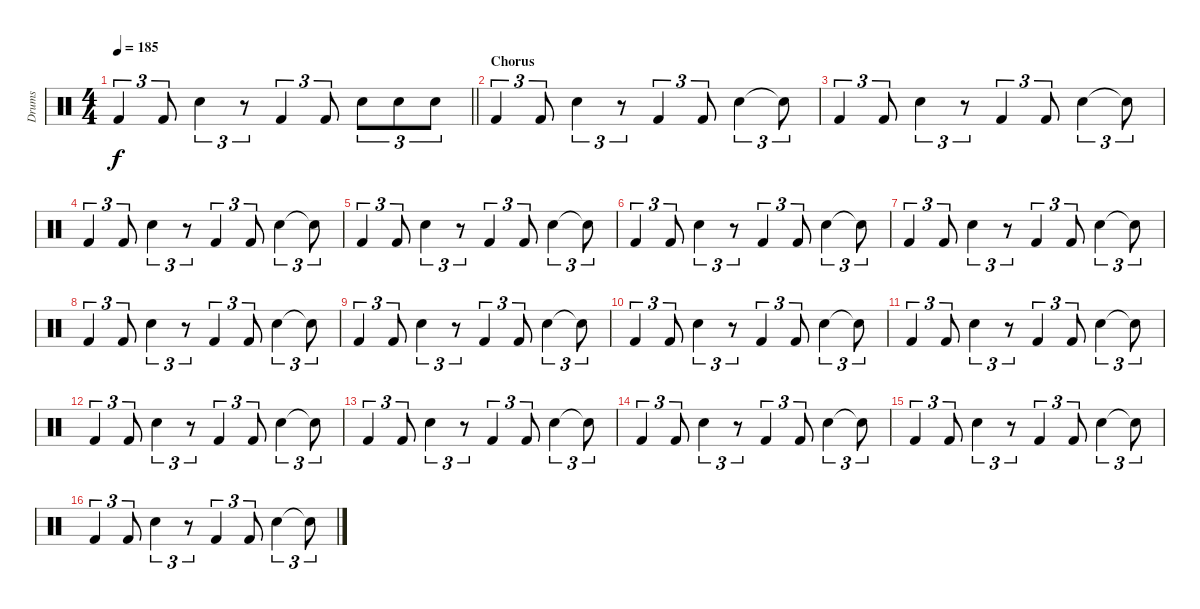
\track ("Drums" "Drums") {instrument percussion}
\staff {score}
\articulation defaults
\ts (4 4)
\tempo 185
\clef neutral
\barLineRight lightlight
\ks c "Kick (hit) 2".4{tu (3 2) dy f} "Kick (hit) 2".8{tu (3 2)} "Snare (hit) 2".4{tu (3 2)}
r.8{tu (3 2)} "Kick (hit) 2".4{tu (3 2)} "Kick (hit) 2".8{tu (3 2)} "Snare (hit) 2".8{tu (3 2)} "Snare (hit) 2".8{tu (3 2)} "Snare (hit) 2".8{tu (3 2)} |
\section ("" "Chorus")
"Kick (hit) 2".4{tu (3 2)} "Kick (hit) 2".8{tu (3 2)} "Snare (hit) 2".4{tu (3 2)} r.8{tu (3 2)} "Kick (hit) 2".4{tu (3 2)} "Kick (hit) 2".8{tu (3 2)} "Snare (hit) 2".4{tu (3 2)} "Snare (hit)"{t}.8{tu (3 2)} |
"Kick (hit) 2".4{tu (3 2)} "Kick (hit) 2".8{tu (3 2)} "Snare (hit) 2".4{tu (3 2)} r.8{tu (3 2)} "Kick (hit) 2".4{tu (3 2)} "Kick (hit) 2".8{tu (3 2)} "Snare (hit) 2".4{tu (3 2)} "Snare (hit)"{t}.8{tu (3 2)} |
"Kick (hit) 2".4{tu (3 2)} "Kick (hit) 2".8{tu (3 2)} "Snare (hit) 2".4{tu (3 2)} r.8{tu (3 2)} "Kick (hit) 2".4{tu (3 2)} "Kick (hit) 2".8{tu (3 2)} "Snare (hit) 2".4{tu (3 2)} "Snare (hit)"{t}.8{tu (3 2)} |
"Kick (hit) 2".4{tu (3 2)} "Kick (hit) 2".8{tu (3 2)} "Snare (hit) 2".4{tu (3 2)} r.8{tu (3 2)} "Kick (hit) 2".4{tu (3 2)} "Kick (hit) 2".8{tu (3 2)} "Snare (hit) 2".4{tu (3 2)} "Snare (hit)"{t}.8{tu (3 2)} |
"Kick (hit) 2".4{tu (3 2)} "Kick (hit) 2".8{tu (3 2)} "Snare (hit) 2".4{tu (3 2)} r.8{tu (3 2)} "Kick (hit) 2".4{tu (3 2)} "Kick (hit) 2".8{tu (3 2)} "Snare (hit) 2".4{tu (3 2)} "Snare (hit)"{t}.8{tu (3 2)} |
"Kick (hit) 2".4{tu (3 2)} "Kick (hit) 2".8{tu (3 2)} "Snare (hit) 2".4{tu (3 2)} r.8{tu (3 2)} "Kick (hit) 2".4{tu (3 2)} "Kick (hit) 2".8{tu (3 2)} "Snare (hit) 2".4{tu (3 2)} "Snare (hit)"{t}.8{tu (3 2)} |
"Kick (hit) 2".4{tu (3 2)} "Kick (hit) 2".8{tu (3 2)} "Snare (hit) 2".4{tu (3 2)} r.8{tu (3 2)} "Kick (hit) 2".4{tu (3 2)} "Kick (hit) 2".8{tu (3 2)} "Snare (hit) 2".4{tu (3 2)} "Snare (hit)"{t}.8{tu (3 2)} |
"Kick (hit) 2".4{tu (3 2)} "Kick (hit) 2".8{tu (3 2)} "Snare (hit) 2".4{tu (3 2)} r.8{tu (3 2)} "Kick (hit) 2".4{tu (3 2)} "Kick (hit) 2".8{tu (3 2)} "Snare (hit) 2".4{tu (3 2)} "Snare (hit)"{t}.8{tu (3 2)} |
"Kick (hit) 2".4{tu (3 2)} "Kick (hit) 2".8{tu (3 2)} "Snare (hit) 2".4{tu (3 2)} r.8{tu (3 2)} "Kick (hit) 2".4{tu (3 2)} "Kick (hit) 2".8{tu (3 2)} "Snare (hit) 2".4{tu (3 2)} "Snare (hit)"{t}.8{tu (3 2)} |
"Kick (hit) 2".4{tu (3 2)} "Kick (hit) 2".8{tu (3 2)} "Snare (hit) 2".4{tu (3 2)} r.8{tu (3 2)} "Kick (hit) 2".4{tu (3 2)} "Kick (hit) 2".8{tu (3 2)} "Snare (hit) 2".4{tu (3 2)} "Snare (hit)"{t}.8{tu (3 2)} |
"Kick (hit) 2".4{tu (3 2)} "Kick (hit) 2".8{tu (3 2)} "Snare (hit) 2".4{tu (3 2)} r.8{tu (3 2)} "Kick (hit) 2".4{tu (3 2)} "Kick (hit) 2".8{tu (3 2)} "Snare (hit) 2".4{tu (3 2)} "Snare (hit)"{t}.8{tu (3 2)} |
"Kick (hit) 2".4{tu (3 2)} "Kick (hit) 2".8{tu (3 2)} "Snare (hit) 2".4{tu (3 2)} r.8{tu (3 2)} "Kick (hit) 2".4{tu (3 2)} "Kick (hit) 2".8{tu (3 2)} "Snare (hit) 2".4{tu (3 2)} "Snare (hit)"{t}.8{tu (3 2)} |
"Kick (hit) 2".4{tu (3 2)} "Kick (hit) 2".8{tu (3 2)} "Snare (hit) 2".4{tu (3 2)} r.8{tu (3 2)} "Kick (hit) 2".4{tu (3 2)} "Kick (hit) 2".8{tu (3 2)} "Snare (hit) 2".4{tu (3 2)} "Snare (hit)"{t}.8{tu (3 2)} |
"Kick (hit) 2".4{tu (3 2)} "Kick (hit) 2".8{tu (3 2)} "Snare (hit) 2".4{tu (3 2)} r.8{tu (3 2)} "Kick (hit) 2".4{tu (3 2)} "Kick (hit) 2".8{tu (3 2)} "Snare (hit) 2".4{tu (3 2)} "Snare (hit)"{t}.8{tu (3 2)} |
"Kick (hit) 2".4{tu (3 2)} "Kick (hit) 2".8{tu (3 2)} "Snare (hit) 2".4{tu (3 2)} r.8{tu (3 2)} "Kick (hit) 2".4{tu (3 2)} "Kick (hit) 2".8{tu (3 2)} "Snare (hit) 2".4{tu (3 2)} "Snare (hit)"{t}.8{tu (3 2)}
